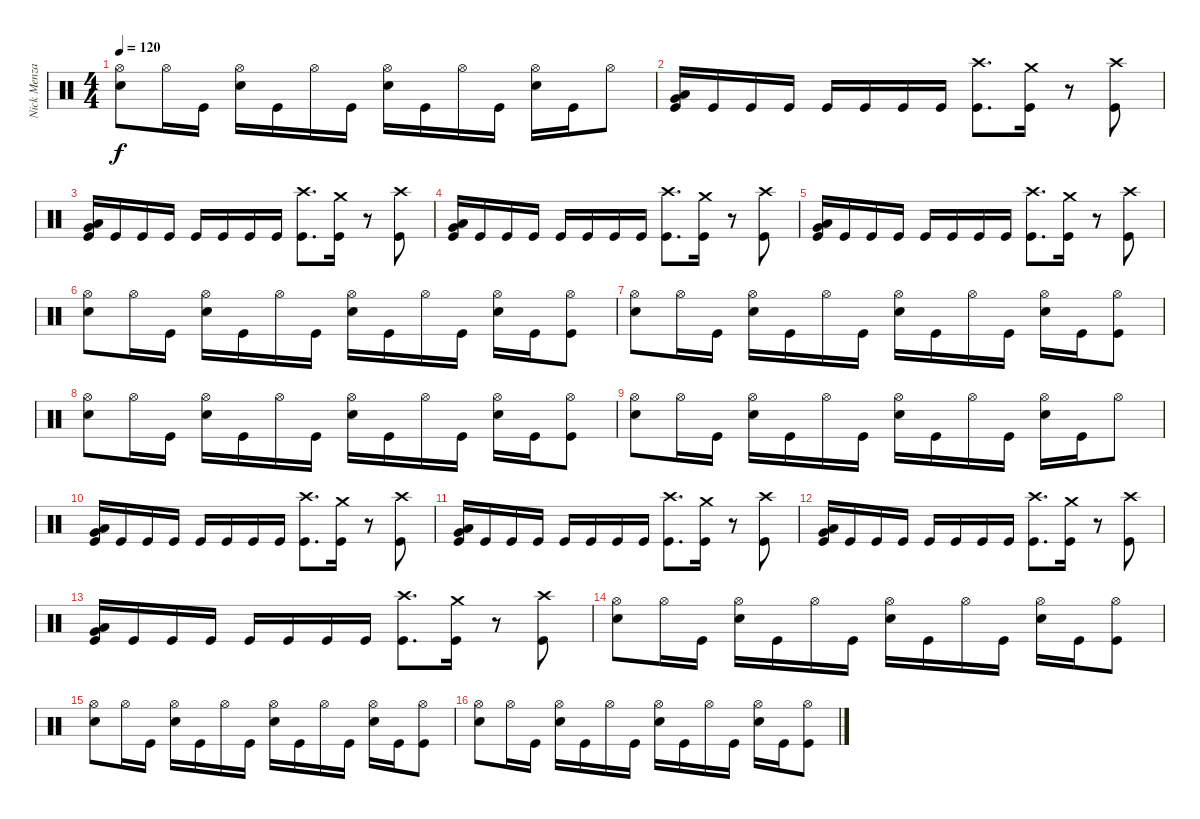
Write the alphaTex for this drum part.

\track ("Nick Menza" "Nick Menza") {instrument percussion}
\staff {score}
\articulation defaults
\ts (4 4)
\tempo 120
\clef neutral
\ks c
("Hi-Hat (open)" "Snare (hit) 2").8{dy f} "Hi-Hat (open)".16 "Kick (hit)".16 ("Hi-Hat (open)" "Snare (hit) 2").16 "Kick (hit)".16 "Hi-Hat (open)".16 "Kick (hit)".16 ("Hi-Hat (open)" "Snare (hit) 2").16 "Kick (hit)".16 "Hi-Hat (open)".16 "Kick (hit)".16 ("Hi-Hat (open)" "Snare (hit) 2").16 "Kick (hit)".16 "Hi-Hat (open)".8 |
("Very Low Tom (hit)" "Low Floor Tom (hit)" "Kick (hit)").16 "Kick (hit)".16 "Kick (hit)".16 "Kick (hit)".16 "Kick (hit)".16 "Kick (hit)".16 "Kick (hit)".16 "Kick (hit)".16 ("Crash high (hit)" "Kick (hit)").8{d} ("Crash medium (hit)" "Kick (hit)").16 r.8 ("Crash high (hit)" "Kick (hit)").8 |
("Very Low Tom (hit)" "Low Floor Tom (hit)" "Kick (hit)").16 "Kick (hit)".16 "Kick (hit)".16 "Kick (hit)".16 "Kick (hit)".16 "Kick (hit)".16 "Kick (hit)".16 "Kick (hit)".16 ("Crash high (hit)" "Kick (hit)").8{d} ("Crash medium (hit)" "Kick (hit)").16 r.8 ("Crash high (hit)" "Kick (hit)").8 |
("Very Low Tom (hit)" "Low Floor Tom (hit)" "Kick (hit)").16 "Kick (hit)".16 "Kick (hit)".16 "Kick (hit)".16 "Kick (hit)".16 "Kick (hit)".16 "Kick (hit)".16 "Kick (hit)".16 ("Crash high (hit)" "Kick (hit)").8{d} ("Crash medium (hit)" "Kick (hit)").16 r.8 ("Crash high (hit)" "Kick (hit)").8 |
("Very Low Tom (hit)" "Low Floor Tom (hit)" "Kick (hit)").16 "Kick (hit)".16 "Kick (hit)".16 "Kick (hit)".16 "Kick (hit)".16 "Kick (hit)".16 "Kick (hit)".16 "Kick (hit)".16 ("Crash high (hit)" "Kick (hit)").8{d} ("Crash medium (hit)" "Kick (hit)").16 r.8 ("Crash high (hit)" "Kick (hit)").8 |
("Hi-Hat (open)" "Snare (hit) 2").8 "Hi-Hat (open)".16 "Kick (hit)".16 ("Hi-Hat (open)" "Snare (hit) 2").16 "Kick (hit)".16 "Hi-Hat (open)".16 "Kick (hit)".16 ("Hi-Hat (open)" "Snare (hit) 2").16 "Kick (hit)".16 "Hi-Hat (open)".16 "Kick (hit)".16 ("Hi-Hat (open)" "Snare (hit) 2").16 "Kick (hit)".16 ("Hi-Hat (open)" "Kick (hit)").8 |
("Hi-Hat (open)" "Snare (hit) 2").8 "Hi-Hat (open)".16 "Kick (hit)".16 ("Hi-Hat (open)" "Snare (hit) 2").16 "Kick (hit)".16 "Hi-Hat (open)".16 "Kick (hit)".16 ("Hi-Hat (open)" "Snare (hit) 2").16 "Kick (hit)".16 "Hi-Hat (open)".16 "Kick (hit)".16 ("Hi-Hat (open)" "Snare (hit) 2").16 "Kick (hit)".16 ("Hi-Hat (open)" "Kick (hit)").8 |
("Hi-Hat (open)" "Snare (hit) 2").8 "Hi-Hat (open)".16 "Kick (hit)".16 ("Hi-Hat (open)" "Snare (hit) 2").16 "Kick (hit)".16 "Hi-Hat (open)".16 "Kick (hit)".16 ("Hi-Hat (open)" "Snare (hit) 2").16 "Kick (hit)".16 "Hi-Hat (open)".16 "Kick (hit)".16 ("Hi-Hat (open)" "Snare (hit) 2").16 "Kick (hit)".16 ("Hi-Hat (open)" "Kick (hit)").8 |
("Hi-Hat (open)" "Snare (hit) 2").8 "Hi-Hat (open)".16 "Kick (hit)".16 ("Hi-Hat (open)" "Snare (hit) 2").16 "Kick (hit)".16 "Hi-Hat (open)".16 "Kick (hit)".16 ("Hi-Hat (open)" "Snare (hit) 2").16 "Kick (hit)".16 "Hi-Hat (open)".16 "Kick (hit)".16 ("Hi-Hat (open)" "Snare (hit) 2").16 "Kick (hit)".16 "Hi-Hat (open)".8 |
("Very Low Tom (hit)" "Low Floor Tom (hit)" "Kick (hit)").16 "Kick (hit)".16 "Kick (hit)".16 "Kick (hit)".16 "Kick (hit)".16 "Kick (hit)".16 "Kick (hit)".16 "Kick (hit)".16 ("Crash high (hit)" "Kick (hit)").8{d} ("Crash medium (hit)" "Kick (hit)").16 r.8 ("Crash high (hit)" "Kick (hit)").8 |
("Very Low Tom (hit)" "Low Floor Tom (hit)" "Kick (hit)").16 "Kick (hit)".16 "Kick (hit)".16 "Kick (hit)".16 "Kick (hit)".16 "Kick (hit)".16 "Kick (hit)".16 "Kick (hit)".16 ("Crash high (hit)" "Kick (hit)").8{d} ("Crash medium (hit)" "Kick (hit)").16 r.8 ("Crash high (hit)" "Kick (hit)").8 |
("Very Low Tom (hit)" "Low Floor Tom (hit)" "Kick (hit)").16 "Kick (hit)".16 "Kick (hit)".16 "Kick (hit)".16 "Kick (hit)".16 "Kick (hit)".16 "Kick (hit)".16 "Kick (hit)".16 ("Crash high (hit)" "Kick (hit)").8{d} ("Crash medium (hit)" "Kick (hit)").16 r.8 ("Crash high (hit)" "Kick (hit)").8 |
("Very Low Tom (hit)" "Low Floor Tom (hit)" "Kick (hit)").16 "Kick (hit)".16 "Kick (hit)".16 "Kick (hit)".16 "Kick (hit)".16 "Kick (hit)".16 "Kick (hit)".16 "Kick (hit)".16 ("Crash high (hit)" "Kick (hit)").8{d} ("Crash medium (hit)" "Kick (hit)").16 r.8 ("Crash high (hit)" "Kick (hit)").8 |
("Hi-Hat (open)" "Snare (hit) 2").8 "Hi-Hat (open)".16 "Kick (hit)".16 ("Hi-Hat (open)" "Snare (hit) 2").16 "Kick (hit)".16 "Hi-Hat (open)".16 "Kick (hit)".16 ("Hi-Hat (open)" "Snare (hit) 2").16 "Kick (hit)".16 "Hi-Hat (open)".16 "Kick (hit)".16 ("Hi-Hat (open)" "Snare (hit) 2").16 "Kick (hit)".16 ("Hi-Hat (open)" "Kick (hit)").8 |
("Hi-Hat (open)" "Snare (hit) 2").8 "Hi-Hat (open)".16 "Kick (hit)".16 ("Hi-Hat (open)" "Snare (hit) 2").16 "Kick (hit)".16 "Hi-Hat (open)".16 "Kick (hit)".16 ("Hi-Hat (open)" "Snare (hit) 2").16 "Kick (hit)".16 "Hi-Hat (open)".16 "Kick (hit)".16 ("Hi-Hat (open)" "Snare (hit) 2").16 "Kick (hit)".16 ("Hi-Hat (open)" "Kick (hit)").8 |
("Hi-Hat (open)" "Snare (hit) 2").8 "Hi-Hat (open)".16 "Kick (hit)".16 ("Hi-Hat (open)" "Snare (hit) 2").16 "Kick (hit)".16 "Hi-Hat (open)".16 "Kick (hit)".16 ("Hi-Hat (open)" "Snare (hit) 2").16 "Kick (hit)".16 "Hi-Hat (open)".16 "Kick (hit)".16 ("Hi-Hat (open)" "Snare (hit) 2").16 "Kick (hit)".16 ("Hi-Hat (open)" "Kick (hit)").8
